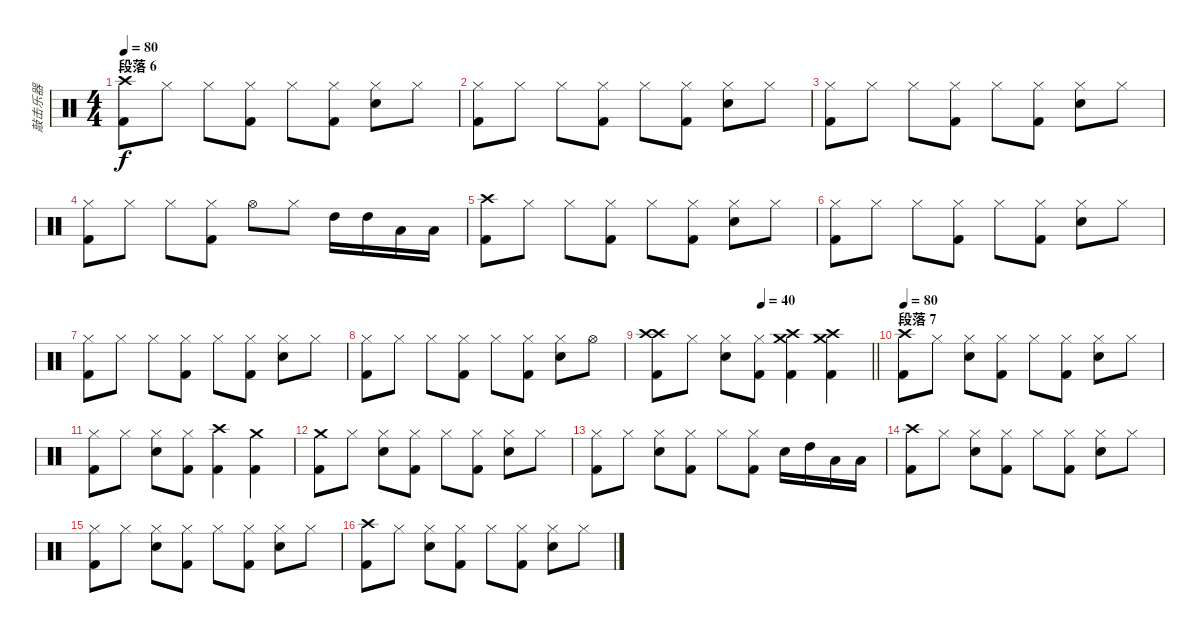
\track ("敲击乐器" "敲击乐器") {instrument percussion}
\staff {score}
\articulation defaults
\ts (4 4)
\section ("" "段落 6")
\tempo 80
\clef neutral
\ks c
("Crash high (hit)" "Kick (hit) 2").8{dy f} "Hi-Hat (closed)".8 "Hi-Hat (closed)".8 ("Hi-Hat (closed)" "Kick (hit) 2").8 "Hi-Hat (closed)".8 ("Hi-Hat (closed)" "Kick (hit) 2").8 ("Hi-Hat (closed)" "Snare (hit) 2").8 "Hi-Hat (closed)".8 |
("Hi-Hat (closed)" "Kick (hit) 2").8 "Hi-Hat (closed)".8 "Hi-Hat (closed)".8 ("Hi-Hat (closed)" "Kick (hit) 2").8 "Hi-Hat (closed)".8 ("Hi-Hat (closed)" "Kick (hit) 2").8 ("Hi-Hat (closed)" "Snare (hit) 2").8 "Hi-Hat (closed)".8 |
("Hi-Hat (closed)" "Kick (hit) 2").8 "Hi-Hat (closed)".8 "Hi-Hat (closed)".8 ("Hi-Hat (closed)" "Kick (hit) 2").8 "Hi-Hat (closed)".8 ("Hi-Hat (closed)" "Kick (hit) 2").8 ("Hi-Hat (closed)" "Snare (hit) 2").8 "Hi-Hat (closed)".8 |
("Hi-Hat (closed)" "Kick (hit) 2").8 "Hi-Hat (closed)".8 "Hi-Hat (closed)".8 ("Hi-Hat (closed)" "Kick (hit) 2").8 "Hi-Hat (open)".8 "Hi-Hat (closed)".8 "High Tom (hit)".16 "High Tom (hit)".16 "Low Tom (hit)".16 "Low Tom (hit)".16 |
("Crash high (hit)" "Kick (hit) 2").8 "Hi-Hat (closed)".8 "Hi-Hat (closed)".8 ("Hi-Hat (closed)" "Kick (hit) 2").8 "Hi-Hat (closed)".8 ("Hi-Hat (closed)" "Kick (hit) 2").8 ("Hi-Hat (closed)" "Snare (hit) 2").8 "Hi-Hat (closed)".8 |
("Hi-Hat (closed)" "Kick (hit) 2").8 "Hi-Hat (closed)".8 "Hi-Hat (closed)".8 ("Hi-Hat (closed)" "Kick (hit) 2").8 "Hi-Hat (closed)".8 ("Hi-Hat (closed)" "Kick (hit) 2").8 ("Hi-Hat (closed)" "Snare (hit) 2").8 "Hi-Hat (closed)".8 |
("Hi-Hat (closed)" "Kick (hit) 2").8 "Hi-Hat (closed)".8 "Hi-Hat (closed)".8 ("Hi-Hat (closed)" "Kick (hit) 2").8 "Hi-Hat (closed)".8 ("Hi-Hat (closed)" "Kick (hit) 2").8 ("Hi-Hat (closed)" "Snare (hit) 2").8 "Hi-Hat (closed)".8 |
("Hi-Hat (closed)" "Kick (hit) 2").8 "Hi-Hat (closed)".8 "Hi-Hat (closed)".8 ("Hi-Hat (closed)" "Kick (hit) 2").8 "Hi-Hat (closed)".8 ("Hi-Hat (closed)" "Kick (hit) 2").8 ("Hi-Hat (closed)" "Snare (hit) 2").8 "Hi-Hat (open)".8 |
\tempo (40 0.5)
\barLineRight lightlight
("Crash high (hit)" "Crash high (hit)" "Kick (hit) 2").8 "Hi-Hat (closed)".8 ("Hi-Hat (closed)" "Snare (hit) 2").8 ("Hi-Hat (closed)" "Kick (hit) 2").8 ("Crash high (hit)" "Crash medium (hit)" "Kick (hit) 2").4 ("Crash medium (hit)" "Crash high (hit)" "Kick (hit) 2").4 |
\section ("" "段落 7")
\tempo 80
("Crash high (hit)" "Kick (hit) 2").8 "Hi-Hat (closed)".8 ("Hi-Hat (closed)" "Snare (hit) 2").8 ("Hi-Hat (closed)" "Kick (hit) 2").8 "Hi-Hat (closed)".8 ("Hi-Hat (closed)" "Kick (hit) 2").8 ("Hi-Hat (closed)" "Snare (hit) 2").8 "Hi-Hat (closed)".8 |
("Hi-Hat (closed)" "Kick (hit) 2").8 "Hi-Hat (closed)".8 ("Hi-Hat (closed)" "Snare (hit) 2").8 ("Hi-Hat (closed)" "Kick (hit) 2").8 ("Crash high (hit)" "Kick (hit) 2").4 ("Crash medium (hit)" "Kick (hit) 2").4 |
("Crash medium (hit)" "Kick (hit) 2").8 "Hi-Hat (closed)".8 ("Hi-Hat (closed)" "Snare (hit) 2").8 ("Hi-Hat (closed)" "Kick (hit) 2").8 "Hi-Hat (closed)".8 ("Hi-Hat (closed)" "Kick (hit) 2").8 ("Hi-Hat (closed)" "Snare (hit) 2").8 "Hi-Hat (closed)".8 |
("Hi-Hat (closed)" "Kick (hit) 2").8 "Hi-Hat (closed)".8 ("Hi-Hat (closed)" "Snare (hit) 2").8 ("Hi-Hat (closed)" "Kick (hit) 2").8 "Hi-Hat (closed)".8 ("Hi-Hat (closed)" "Kick (hit) 2").8 "Snare (hit) 2".16 "High Tom (hit)".16 "Low Tom (hit)".16 "Low Tom (hit)".16 |
("Crash high (hit)" "Kick (hit) 2").8 "Hi-Hat (closed)".8 ("Hi-Hat (closed)" "Snare (hit) 2").8 ("Hi-Hat (closed)" "Kick (hit) 2").8 "Hi-Hat (closed)".8 ("Hi-Hat (closed)" "Kick (hit) 2").8 ("Hi-Hat (closed)" "Snare (hit) 2").8 "Hi-Hat (closed)".8 |
("Hi-Hat (closed)" "Kick (hit) 2").8 "Hi-Hat (closed)".8 ("Hi-Hat (closed)" "Snare (hit) 2").8 ("Hi-Hat (closed)" "Kick (hit) 2").8 "Hi-Hat (closed)".8 ("Hi-Hat (closed)" "Kick (hit) 2").8 ("Hi-Hat (closed)" "Snare (hit) 2").8 "Hi-Hat (closed)".8 |
("Crash high (hit)" "Kick (hit) 2").8 "Hi-Hat (closed)".8 ("Hi-Hat (closed)" "Snare (hit) 2").8 ("Hi-Hat (closed)" "Kick (hit) 2").8 "Hi-Hat (closed)".8 ("Hi-Hat (closed)" "Kick (hit) 2").8 ("Hi-Hat (closed)" "Snare (hit) 2").8 "Hi-Hat (closed)".8
